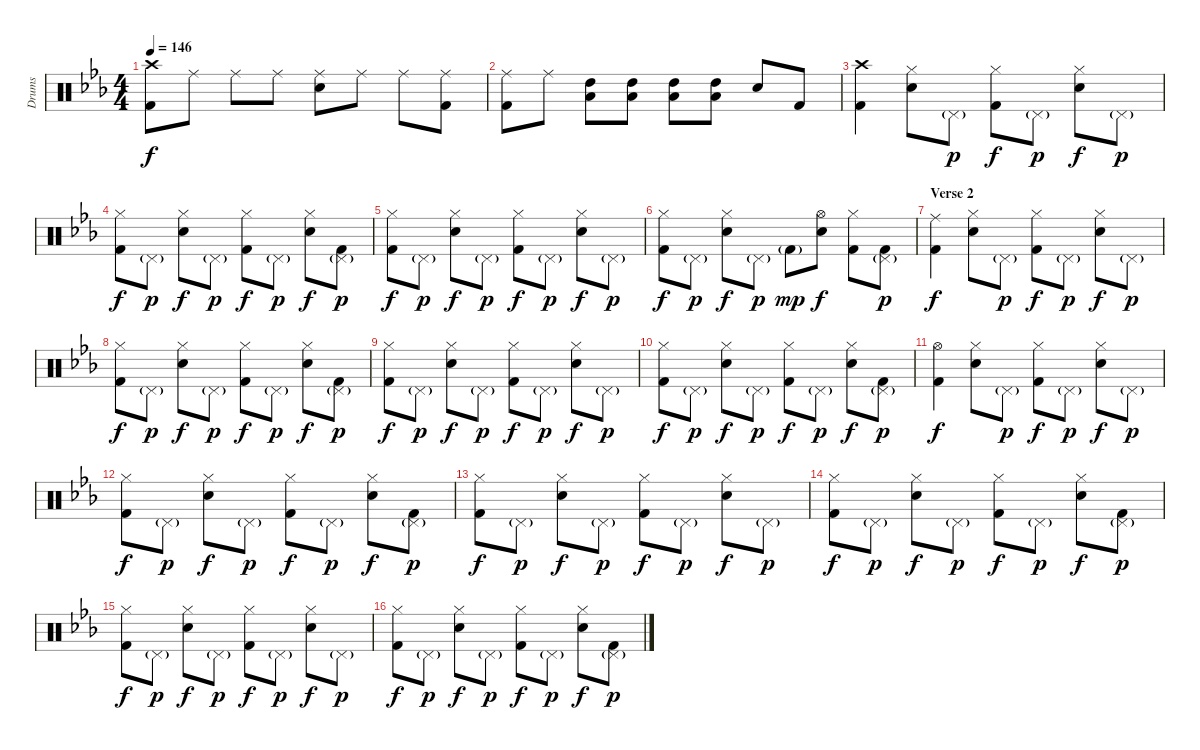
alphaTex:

\track ("Drums" "Drums") {instrument percussion}
\staff {score}
\articulation defaults
\ts (4 4)
\tempo 146
\clef neutral
\ks eb
("Crash high (hit)" "Kick (hit) 2").8{dy f} "Ride (middle)".8 "Ride (middle)".8 "Ride (middle)".8 ("Ride (middle)" "Electric Snare (hit)").8 "Ride (middle)".8 "Ride (middle)".8 ("Ride (middle)" "Kick (hit) 2").8 |
("Ride (middle)" "Kick (hit) 2").8 "Ride (middle)".8 ("High Tom (hit)" "Low Tom (hit)").8 ("High Tom (hit)" "Low Tom (hit)").8 ("High Tom (hit)" "Low Tom (hit)").8 ("High Tom (hit)" "Low Tom (hit)").8 "Electric Snare (hit)".8 "Kick (hit) 2".8 |
("Crash high (hit)" "Kick (hit) 2").4 ("Hi-Hat (closed)" "Electric Snare (hit)").8 "Pedal Hi-Hat (hit)"{g}.8{dy p} ("Hi-Hat (closed)" "Kick (hit) 2").8{dy f} "Pedal Hi-Hat (hit)"{g}.8{dy p} ("Hi-Hat (closed)" "Electric Snare (hit)").8{dy f} "Pedal Hi-Hat (hit)"{g}.8{dy p} |
("Hi-Hat (closed)" "Kick (hit) 2").8{dy f} "Pedal Hi-Hat (hit)"{g}.8{dy p} ("Hi-Hat (closed)" "Electric Snare (hit)").8{dy f} "Pedal Hi-Hat (hit)"{g}.8{dy p} ("Hi-Hat (closed)" "Kick (hit) 2").8{dy f} "Pedal Hi-Hat (hit)"{g}.8{dy p} ("Hi-Hat (closed)" "Electric Snare (hit)").8{dy f} ("Pedal Hi-Hat (hit)"{g} "Kick (hit) 2").8{dy p} |
("Hi-Hat (closed)" "Kick (hit) 2").8{dy f} "Pedal Hi-Hat (hit)"{g}.8{dy p} ("Hi-Hat (closed)" "Electric Snare (hit)").8{dy f} "Pedal Hi-Hat (hit)"{g}.8{dy p} ("Hi-Hat (closed)" "Kick (hit) 2").8{dy f} "Pedal Hi-Hat (hit)"{g}.8{dy p} ("Hi-Hat (closed)" "Electric Snare (hit)").8{dy f} "Pedal Hi-Hat (hit)"{g}.8{dy p} |
("Hi-Hat (closed)" "Kick (hit) 2").8{dy f} "Pedal Hi-Hat (hit)"{g}.8{dy p} ("Hi-Hat (closed)" "Electric Snare (hit)").8{dy f} "Pedal Hi-Hat (hit)"{g}.8{dy p} "Kick (hit) 2"{g}.8{dy mp} ("Hi-Hat (open)" "Electric Snare (hit)").8{dy f} ("Hi-Hat (closed)" "Kick (hit) 2").8 ("Pedal Hi-Hat (hit)"{g} "Kick (hit) 2").8{dy p} |
\section ("" "Verse 2")
("Ride (middle)" "Kick (hit) 2").4{dy f} ("Hi-Hat (closed)" "Electric Snare (hit)").8 "Pedal Hi-Hat (hit)"{g}.8{dy p} ("Hi-Hat (closed)" "Kick (hit) 2").8{dy f} "Pedal Hi-Hat (hit)"{g}.8{dy p} ("Hi-Hat (closed)" "Electric Snare (hit)").8{dy f} "Pedal Hi-Hat (hit)"{g}.8{dy p} |
("Hi-Hat (closed)" "Kick (hit) 2").8{dy f} "Pedal Hi-Hat (hit)"{g}.8{dy p} ("Hi-Hat (closed)" "Electric Snare (hit)").8{dy f} "Pedal Hi-Hat (hit)"{g}.8{dy p} ("Hi-Hat (closed)" "Kick (hit) 2").8{dy f} "Pedal Hi-Hat (hit)"{g}.8{dy p} ("Hi-Hat (closed)" "Electric Snare (hit)").8{dy f} ("Pedal Hi-Hat (hit)"{g} "Kick (hit) 2").8{dy p} |
("Hi-Hat (closed)" "Kick (hit) 2").8{dy f} "Pedal Hi-Hat (hit)"{g}.8{dy p} ("Hi-Hat (closed)" "Electric Snare (hit)").8{dy f} "Pedal Hi-Hat (hit)"{g}.8{dy p} ("Hi-Hat (closed)" "Kick (hit) 2").8{dy f} "Pedal Hi-Hat (hit)"{g}.8{dy p} ("Hi-Hat (closed)" "Electric Snare (hit)").8{dy f} "Pedal Hi-Hat (hit)"{g}.8{dy p} |
("Hi-Hat (closed)" "Kick (hit) 2").8{dy f} "Pedal Hi-Hat (hit)"{g}.8{dy p} ("Hi-Hat (closed)" "Electric Snare (hit)").8{dy f} "Pedal Hi-Hat (hit)"{g}.8{dy p} ("Hi-Hat (closed)" "Kick (hit) 2").8{dy f} "Pedal Hi-Hat (hit)"{g}.8{dy p} ("Hi-Hat (closed)" "Electric Snare (hit)").8{dy f} ("Pedal Hi-Hat (hit)"{g} "Kick (hit) 2").8{dy p} |
("Hi-Hat (open)" "Kick (hit) 2").4{dy f} ("Hi-Hat (closed)" "Electric Snare (hit)").8 "Pedal Hi-Hat (hit)"{g}.8{dy p} ("Hi-Hat (closed)" "Kick (hit) 2").8{dy f} "Pedal Hi-Hat (hit)"{g}.8{dy p} ("Hi-Hat (closed)" "Electric Snare (hit)").8{dy f} "Pedal Hi-Hat (hit)"{g}.8{dy p} |
("Hi-Hat (closed)" "Kick (hit) 2").8{dy f} "Pedal Hi-Hat (hit)"{g}.8{dy p} ("Hi-Hat (closed)" "Electric Snare (hit)").8{dy f} "Pedal Hi-Hat (hit)"{g}.8{dy p} ("Hi-Hat (closed)" "Kick (hit) 2").8{dy f} "Pedal Hi-Hat (hit)"{g}.8{dy p} ("Hi-Hat (closed)" "Electric Snare (hit)").8{dy f} ("Pedal Hi-Hat (hit)"{g} "Kick (hit) 2").8{dy p} |
("Hi-Hat (closed)" "Kick (hit) 2").8{dy f} "Pedal Hi-Hat (hit)"{g}.8{dy p} ("Hi-Hat (closed)" "Electric Snare (hit)").8{dy f} "Pedal Hi-Hat (hit)"{g}.8{dy p} ("Hi-Hat (closed)" "Kick (hit) 2").8{dy f} "Pedal Hi-Hat (hit)"{g}.8{dy p} ("Hi-Hat (closed)" "Electric Snare (hit)").8{dy f} "Pedal Hi-Hat (hit)"{g}.8{dy p} |
("Hi-Hat (closed)" "Kick (hit) 2").8{dy f} "Pedal Hi-Hat (hit)"{g}.8{dy p} ("Hi-Hat (closed)" "Electric Snare (hit)").8{dy f} "Pedal Hi-Hat (hit)"{g}.8{dy p} ("Hi-Hat (closed)" "Kick (hit) 2").8{dy f} "Pedal Hi-Hat (hit)"{g}.8{dy p} ("Hi-Hat (closed)" "Electric Snare (hit)").8{dy f} ("Pedal Hi-Hat (hit)"{g} "Kick (hit) 2").8{dy p} |
("Hi-Hat (closed)" "Kick (hit) 2").8{dy f} "Pedal Hi-Hat (hit)"{g}.8{dy p} ("Hi-Hat (closed)" "Electric Snare (hit)").8{dy f} "Pedal Hi-Hat (hit)"{g}.8{dy p} ("Hi-Hat (closed)" "Kick (hit) 2").8{dy f} "Pedal Hi-Hat (hit)"{g}.8{dy p} ("Hi-Hat (closed)" "Electric Snare (hit)").8{dy f} "Pedal Hi-Hat (hit)"{g}.8{dy p} |
("Hi-Hat (closed)" "Kick (hit) 2").8{dy f} "Pedal Hi-Hat (hit)"{g}.8{dy p} ("Hi-Hat (closed)" "Electric Snare (hit)").8{dy f} "Pedal Hi-Hat (hit)"{g}.8{dy p} ("Hi-Hat (closed)" "Kick (hit) 2").8{dy f} "Pedal Hi-Hat (hit)"{g}.8{dy p} ("Hi-Hat (closed)" "Electric Snare (hit)").8{dy f} ("Pedal Hi-Hat (hit)"{g} "Kick (hit) 2").8{dy p}
